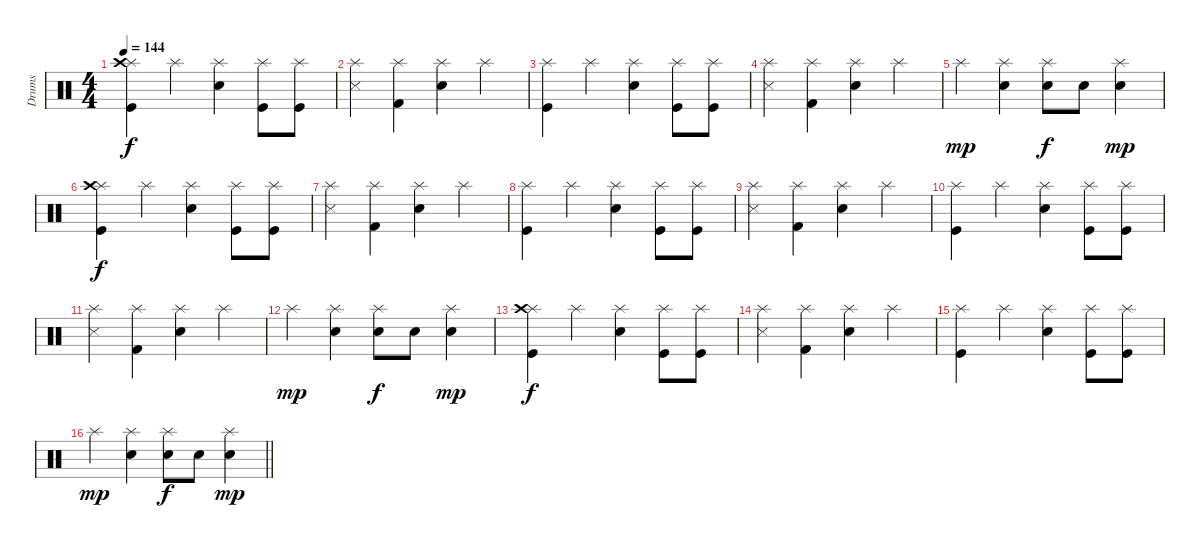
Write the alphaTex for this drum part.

\track ("Drums" "Drums") {instrument percussion}
\staff {score}
\articulation defaults
\ts (4 4)
\tempo 144
\clef neutral
\ks c
("Splash (hit)" "Crash high (hit)" "Kick (hit)").4{dy f} "Splash (hit)".4 ("Splash (hit)" "Electric Snare (hit)").4 ("Splash (hit)" "Kick (hit)").8 ("Splash (hit)" "Kick (hit)").8 |
("Splash (hit)" "Snare (side stick) 3").4 ("Splash (hit)" "Kick (hit) 2").4 ("Splash (hit)" "Electric Snare (hit)").4 "Splash (hit)".4 |
("Splash (hit)" "Kick (hit)").4 "Splash (hit)".4 ("Splash (hit)" "Electric Snare (hit)").4 ("Splash (hit)" "Kick (hit)").8 ("Splash (hit)" "Kick (hit)").8 |
("Splash (hit)" "Snare (side stick) 3").4 ("Splash (hit)" "Kick (hit) 2").4 ("Splash (hit)" "Electric Snare (hit)").4 "Splash (hit)".4 |
"Splash (hit)".4{dy mp} ("Splash (hit)" "Electric Snare (hit)").4 ("Splash (hit)" "Electric Snare (hit)").8{dy f} "Electric Snare (hit)".8 ("Splash (hit)" "Electric Snare (hit)").4{dy mp} |
("Splash (hit)" "Crash high (hit)" "Kick (hit)").4{dy f} "Splash (hit)".4 ("Splash (hit)" "Electric Snare (hit)").4 ("Splash (hit)" "Kick (hit)").8 ("Splash (hit)" "Kick (hit)").8 |
("Splash (hit)" "Snare (side stick) 3").4 ("Splash (hit)" "Kick (hit) 2").4 ("Splash (hit)" "Electric Snare (hit)").4 "Splash (hit)".4 |
("Splash (hit)" "Kick (hit)").4 "Splash (hit)".4 ("Splash (hit)" "Electric Snare (hit)").4 ("Splash (hit)" "Kick (hit)").8 ("Splash (hit)" "Kick (hit)").8 |
("Splash (hit)" "Snare (side stick) 3").4 ("Splash (hit)" "Kick (hit) 2").4 ("Splash (hit)" "Electric Snare (hit)").4 "Splash (hit)".4 |
("Splash (hit)" "Kick (hit)").4 "Splash (hit)".4 ("Splash (hit)" "Electric Snare (hit)").4 ("Splash (hit)" "Kick (hit)").8 ("Splash (hit)" "Kick (hit)").8 |
("Splash (hit)" "Snare (side stick) 3").4 ("Splash (hit)" "Kick (hit) 2").4 ("Splash (hit)" "Electric Snare (hit)").4 "Splash (hit)".4 |
"Splash (hit)".4{dy mp} ("Splash (hit)" "Electric Snare (hit)").4 ("Splash (hit)" "Electric Snare (hit)").8{dy f} "Electric Snare (hit)".8 ("Splash (hit)" "Electric Snare (hit)").4{dy mp} |
("Splash (hit)" "Crash high (hit)" "Kick (hit)").4{dy f} "Splash (hit)".4 ("Splash (hit)" "Electric Snare (hit)").4 ("Splash (hit)" "Kick (hit)").8 ("Splash (hit)" "Kick (hit)").8 |
("Splash (hit)" "Snare (side stick) 3").4 ("Splash (hit)" "Kick (hit) 2").4 ("Splash (hit)" "Electric Snare (hit)").4 "Splash (hit)".4 |
("Splash (hit)" "Kick (hit)").4 "Splash (hit)".4 ("Splash (hit)" "Electric Snare (hit)").4 ("Splash (hit)" "Kick (hit)").8 ("Splash (hit)" "Kick (hit)").8 |
\barLineRight lightlight "Splash (hit)".4{dy mp}
("Splash (hit)" "Electric Snare (hit)").4 ("Splash (hit)" "Electric Snare (hit)").8{dy f} "Electric Snare (hit)".8 ("Splash (hit)" "Electric Snare (hit)").4{dy mp}
